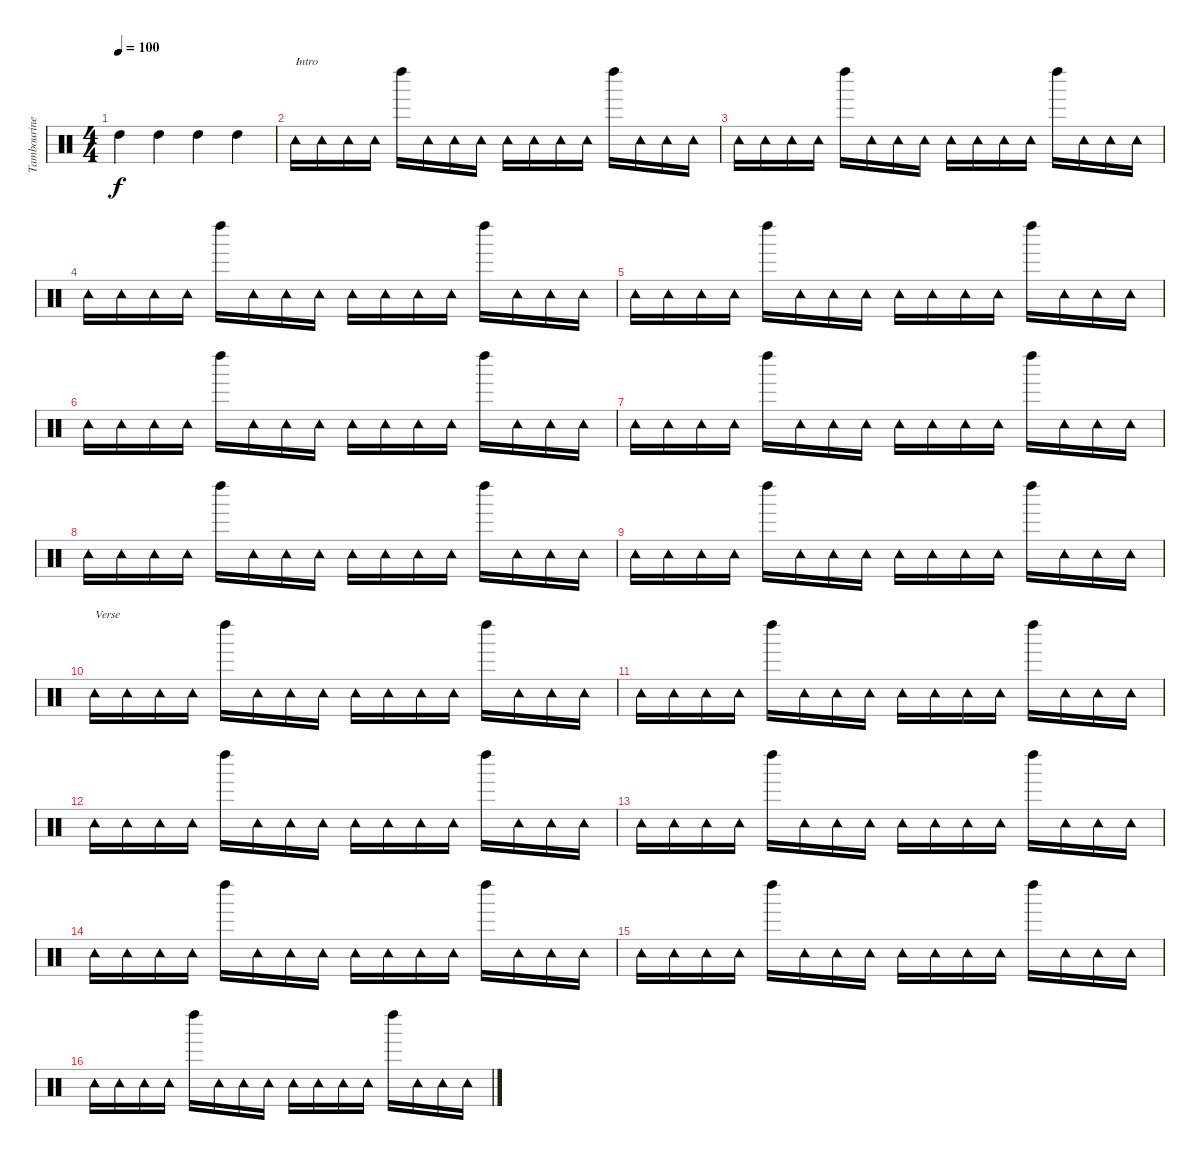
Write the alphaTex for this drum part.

\track ("Tambourine(Alan)" "Tambourine") {instrument percussion}
\staff {score}
\articulation defaults
\ts (4 4)
\tempo 100
\clef neutral
\ks c "High Tom (hit)".4{dy f} "High Tom (hit)".4 "High Tom (hit)".4 "High Tom (hit)".4
|
"Tambourine (hit)".16{txt "Intro"} "Tambourine (hit)".16 "Tambourine (hit)".16 "Tambourine (hit)".16 "Left Maraca (hit)".16 "Tambourine (hit)".16 "Tambourine (hit)".16 "Tambourine (hit)".16 "Tambourine (hit)".16 "Tambourine (hit)".16 "Tambourine (hit)".16 "Tambourine (hit)".16 "Left Maraca (hit)".16 "Tambourine (hit)".16 "Tambourine (hit)".16 "Tambourine (hit)".16 |
"Tambourine (hit)".16 "Tambourine (hit)".16 "Tambourine (hit)".16 "Tambourine (hit)".16 "Left Maraca (hit)".16 "Tambourine (hit)".16 "Tambourine (hit)".16 "Tambourine (hit)".16 "Tambourine (hit)".16 "Tambourine (hit)".16 "Tambourine (hit)".16 "Tambourine (hit)".16 "Left Maraca (hit)".16 "Tambourine (hit)".16 "Tambourine (hit)".16 "Tambourine (hit)".16 |
"Tambourine (hit)".16 "Tambourine (hit)".16 "Tambourine (hit)".16 "Tambourine (hit)".16 "Left Maraca (hit)".16 "Tambourine (hit)".16 "Tambourine (hit)".16 "Tambourine (hit)".16 "Tambourine (hit)".16 "Tambourine (hit)".16 "Tambourine (hit)".16 "Tambourine (hit)".16 "Left Maraca (hit)".16 "Tambourine (hit)".16 "Tambourine (hit)".16 "Tambourine (hit)".16 |
"Tambourine (hit)".16 "Tambourine (hit)".16 "Tambourine (hit)".16 "Tambourine (hit)".16 "Left Maraca (hit)".16 "Tambourine (hit)".16 "Tambourine (hit)".16 "Tambourine (hit)".16 "Tambourine (hit)".16 "Tambourine (hit)".16 "Tambourine (hit)".16 "Tambourine (hit)".16 "Left Maraca (hit)".16 "Tambourine (hit)".16 "Tambourine (hit)".16 "Tambourine (hit)".16 |
"Tambourine (hit)".16 "Tambourine (hit)".16 "Tambourine (hit)".16 "Tambourine (hit)".16 "Left Maraca (hit)".16 "Tambourine (hit)".16 "Tambourine (hit)".16 "Tambourine (hit)".16 "Tambourine (hit)".16 "Tambourine (hit)".16 "Tambourine (hit)".16 "Tambourine (hit)".16 "Left Maraca (hit)".16 "Tambourine (hit)".16 "Tambourine (hit)".16 "Tambourine (hit)".16 |
"Tambourine (hit)".16 "Tambourine (hit)".16 "Tambourine (hit)".16 "Tambourine (hit)".16 "Left Maraca (hit)".16 "Tambourine (hit)".16 "Tambourine (hit)".16 "Tambourine (hit)".16 "Tambourine (hit)".16 "Tambourine (hit)".16 "Tambourine (hit)".16 "Tambourine (hit)".16 "Left Maraca (hit)".16 "Tambourine (hit)".16 "Tambourine (hit)".16 "Tambourine (hit)".16 |
"Tambourine (hit)".16 "Tambourine (hit)".16 "Tambourine (hit)".16 "Tambourine (hit)".16 "Left Maraca (hit)".16 "Tambourine (hit)".16 "Tambourine (hit)".16 "Tambourine (hit)".16 "Tambourine (hit)".16 "Tambourine (hit)".16 "Tambourine (hit)".16 "Tambourine (hit)".16 "Left Maraca (hit)".16 "Tambourine (hit)".16 "Tambourine (hit)".16 "Tambourine (hit)".16 |
"Tambourine (hit)".16 "Tambourine (hit)".16 "Tambourine (hit)".16 "Tambourine (hit)".16 "Left Maraca (hit)".16 "Tambourine (hit)".16 "Tambourine (hit)".16 "Tambourine (hit)".16 "Tambourine (hit)".16 "Tambourine (hit)".16 "Tambourine (hit)".16 "Tambourine (hit)".16 "Left Maraca (hit)".16 "Tambourine (hit)".16 "Tambourine (hit)".16 "Tambourine (hit)".16 |
"Tambourine (hit)".16{txt "Verse"} "Tambourine (hit)".16 "Tambourine (hit)".16 "Tambourine (hit)".16 "Left Maraca (hit)".16 "Tambourine (hit)".16 "Tambourine (hit)".16 "Tambourine (hit)".16 "Tambourine (hit)".16 "Tambourine (hit)".16 "Tambourine (hit)".16 "Tambourine (hit)".16 "Left Maraca (hit)".16 "Tambourine (hit)".16 "Tambourine (hit)".16 "Tambourine (hit)".16 |
"Tambourine (hit)".16 "Tambourine (hit)".16 "Tambourine (hit)".16 "Tambourine (hit)".16 "Left Maraca (hit)".16 "Tambourine (hit)".16 "Tambourine (hit)".16 "Tambourine (hit)".16 "Tambourine (hit)".16 "Tambourine (hit)".16 "Tambourine (hit)".16 "Tambourine (hit)".16 "Left Maraca (hit)".16 "Tambourine (hit)".16 "Tambourine (hit)".16 "Tambourine (hit)".16 |
"Tambourine (hit)".16 "Tambourine (hit)".16 "Tambourine (hit)".16 "Tambourine (hit)".16 "Left Maraca (hit)".16 "Tambourine (hit)".16 "Tambourine (hit)".16 "Tambourine (hit)".16 "Tambourine (hit)".16 "Tambourine (hit)".16 "Tambourine (hit)".16 "Tambourine (hit)".16 "Left Maraca (hit)".16 "Tambourine (hit)".16 "Tambourine (hit)".16 "Tambourine (hit)".16 |
"Tambourine (hit)".16 "Tambourine (hit)".16 "Tambourine (hit)".16 "Tambourine (hit)".16 "Left Maraca (hit)".16 "Tambourine (hit)".16 "Tambourine (hit)".16 "Tambourine (hit)".16 "Tambourine (hit)".16 "Tambourine (hit)".16 "Tambourine (hit)".16 "Tambourine (hit)".16 "Left Maraca (hit)".16 "Tambourine (hit)".16 "Tambourine (hit)".16 "Tambourine (hit)".16 |
"Tambourine (hit)".16 "Tambourine (hit)".16 "Tambourine (hit)".16 "Tambourine (hit)".16 "Left Maraca (hit)".16 "Tambourine (hit)".16 "Tambourine (hit)".16 "Tambourine (hit)".16 "Tambourine (hit)".16 "Tambourine (hit)".16 "Tambourine (hit)".16 "Tambourine (hit)".16 "Left Maraca (hit)".16 "Tambourine (hit)".16 "Tambourine (hit)".16 "Tambourine (hit)".16 |
"Tambourine (hit)".16 "Tambourine (hit)".16 "Tambourine (hit)".16 "Tambourine (hit)".16 "Left Maraca (hit)".16 "Tambourine (hit)".16 "Tambourine (hit)".16 "Tambourine (hit)".16 "Tambourine (hit)".16 "Tambourine (hit)".16 "Tambourine (hit)".16 "Tambourine (hit)".16 "Left Maraca (hit)".16 "Tambourine (hit)".16 "Tambourine (hit)".16 "Tambourine (hit)".16 |
"Tambourine (hit)".16 "Tambourine (hit)".16 "Tambourine (hit)".16 "Tambourine (hit)".16 "Left Maraca (hit)".16 "Tambourine (hit)".16 "Tambourine (hit)".16 "Tambourine (hit)".16 "Tambourine (hit)".16 "Tambourine (hit)".16 "Tambourine (hit)".16 "Tambourine (hit)".16 "Left Maraca (hit)".16 "Tambourine (hit)".16 "Tambourine (hit)".16 "Tambourine (hit)".16
